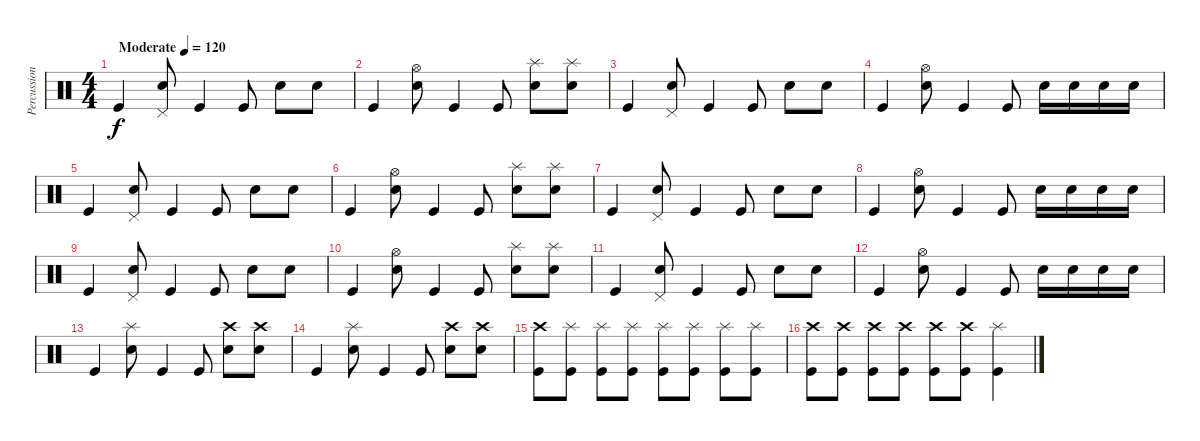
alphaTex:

\track ("Percussion" "Percussion") {instrument percussion}
\staff {score}
\articulation defaults
\ts (4 4)
\tempo (120 "Moderate")
\clef neutral
\ks c "Kick (hit)".4{dy f}
("Snare (hit) 2" "Pedal Hi-Hat (hit)").8 "Kick (hit)".4 "Kick (hit)".8 "Snare (hit) 2".8 "Snare (hit) 2".8 |
"Kick (hit)".4 ("Snare (hit) 2" "Hi-Hat (open)").8 "Kick (hit)".4 "Kick (hit)".8 ("Snare (hit) 2" "Splash (hit)").8 ("Snare (hit) 2" "Splash (hit)").8 |
"Kick (hit)".4 ("Snare (hit) 2" "Pedal Hi-Hat (hit)").8 "Kick (hit)".4 "Kick (hit)".8 "Snare (hit) 2".8 "Snare (hit) 2".8 |
"Kick (hit)".4 ("Snare (hit) 2" "Hi-Hat (open)").8 "Kick (hit)".4 "Kick (hit)".8 "Snare (hit) 2".16 "Snare (hit) 2".16 "Snare (hit) 2".16 "Snare (hit) 2".16 |
"Kick (hit)".4 ("Snare (hit) 2" "Pedal Hi-Hat (hit)").8 "Kick (hit)".4 "Kick (hit)".8 "Snare (hit) 2".8 "Snare (hit) 2".8 |
"Kick (hit)".4 ("Snare (hit) 2" "Hi-Hat (open)").8 "Kick (hit)".4 "Kick (hit)".8 ("Snare (hit) 2" "Splash (hit)").8 ("Snare (hit) 2" "Splash (hit)").8 |
"Kick (hit)".4 ("Snare (hit) 2" "Pedal Hi-Hat (hit)").8 "Kick (hit)".4 "Kick (hit)".8 "Snare (hit) 2".8 "Snare (hit) 2".8 |
"Kick (hit)".4 ("Snare (hit) 2" "Hi-Hat (open)").8 "Kick (hit)".4 "Kick (hit)".8 "Snare (hit) 2".16 "Snare (hit) 2".16 "Snare (hit) 2".16 "Snare (hit) 2".16 |
"Kick (hit)".4 ("Snare (hit) 2" "Pedal Hi-Hat (hit)").8 "Kick (hit)".4 "Kick (hit)".8 "Snare (hit) 2".8 "Snare (hit) 2".8 |
"Kick (hit)".4 ("Snare (hit) 2" "Hi-Hat (open)").8 "Kick (hit)".4 "Kick (hit)".8 ("Snare (hit) 2" "Splash (hit)").8 ("Snare (hit) 2" "Splash (hit)").8 |
"Kick (hit)".4 ("Snare (hit) 2" "Pedal Hi-Hat (hit)").8 "Kick (hit)".4 "Kick (hit)".8 "Snare (hit) 2".8 "Snare (hit) 2".8 |
"Kick (hit)".4 ("Snare (hit) 2" "Hi-Hat (open)").8 "Kick (hit)".4 "Kick (hit)".8 "Snare (hit) 2".16 "Snare (hit) 2".16 "Snare (hit) 2".16 "Snare (hit) 2".16 |
"Kick (hit)".4 ("Snare (hit) 2" "Splash (hit)").8 "Kick (hit)".4 "Kick (hit)".8 ("Snare (hit) 2" "Crash high (hit)").8 ("Snare (hit) 2" "Crash high (hit)").8 |
"Kick (hit)".4 ("Snare (hit) 2" "Splash (hit)").8 "Kick (hit)".4 "Kick (hit)".8 ("Snare (hit) 2" "Crash high (hit)").8 ("Snare (hit) 2" "Crash high (hit)").8 |
("Crash high (hit)" "Kick (hit)").8 ("Splash (hit)" "Kick (hit)").8 ("Splash (hit)" "Kick (hit)").8 ("Splash (hit)" "Kick (hit)").8 ("Splash (hit)" "Kick (hit)").8 ("Splash (hit)" "Kick (hit)").8 ("Splash (hit)" "Kick (hit)").8 ("Splash (hit)" "Kick (hit)").8 |
("Crash high (hit)" "Kick (hit)").8 ("Crash high (hit)" "Kick (hit)").8 ("Crash high (hit)" "Kick (hit)").8 ("Crash high (hit)" "Kick (hit)").8 ("Crash high (hit)" "Kick (hit)").8 ("Crash high (hit)" "Kick (hit)").8 ("Splash (hit)" "Kick (hit)").4
